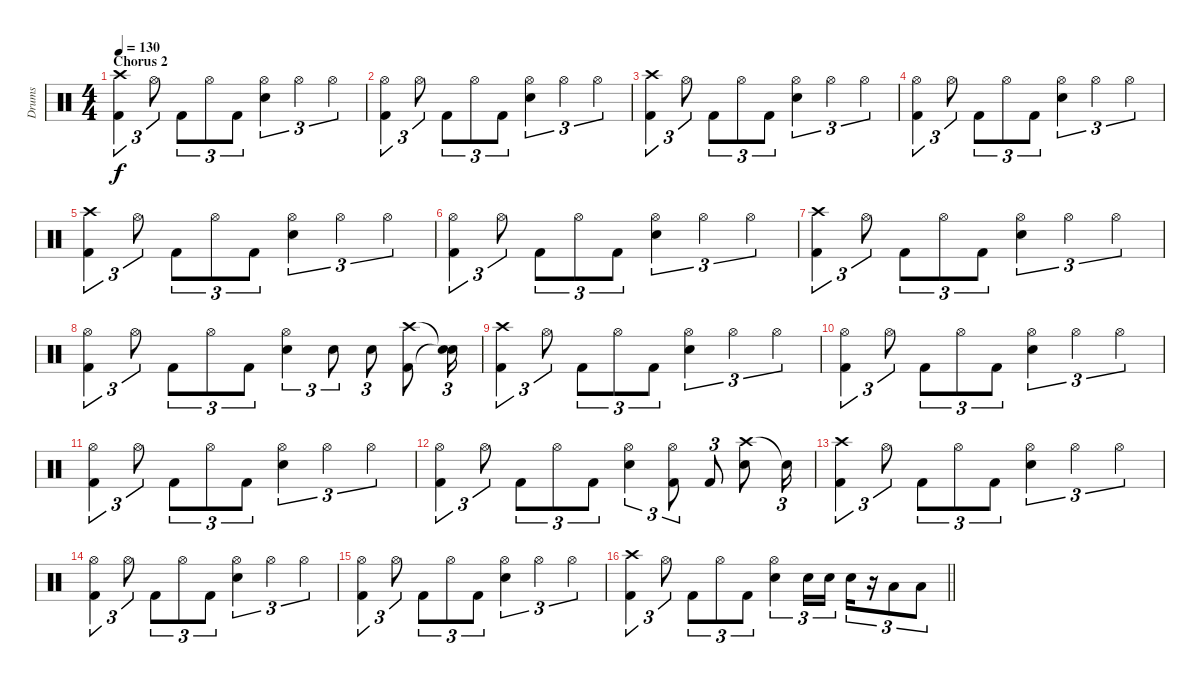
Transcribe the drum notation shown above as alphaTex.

\track ("Drums" "Drums") {instrument percussion}
\staff {score}
\articulation defaults
\ts (4 4)
\section ("" "Chorus 2")
\tempo 130
\clef neutral
\ks c
("Crash high (hit)" "Kick (hit) 2").4{tu (3 2) dy f} "Hi-Hat (open)".8{tu (3 2)} "Kick (hit) 2".8{tu (3 2)} "Hi-Hat (open)".8{tu (3 2)} "Kick (hit) 2".8{tu (3 2)} ("Hi-Hat (open)" "Electric Snare (hit)").4{tu (3 2)} "Hi-Hat (open)".4{tu (3 2)} "Hi-Hat (open)".4{tu (3 2)} |
("Hi-Hat (open)" "Kick (hit) 2").4{tu (3 2)} "Hi-Hat (open)".8{tu (3 2)} "Kick (hit) 2".8{tu (3 2)} "Hi-Hat (open)".8{tu (3 2)} "Kick (hit) 2".8{tu (3 2)} ("Hi-Hat (open)" "Electric Snare (hit)").4{tu (3 2)} "Hi-Hat (open)".4{tu (3 2)} "Hi-Hat (open)".4{tu (3 2)} |
("Crash high (hit)" "Kick (hit) 2").4{tu (3 2)} "Hi-Hat (open)".8{tu (3 2)} "Kick (hit) 2".8{tu (3 2)} "Hi-Hat (open)".8{tu (3 2)} "Kick (hit) 2".8{tu (3 2)} ("Hi-Hat (open)" "Electric Snare (hit)").4{tu (3 2)} "Hi-Hat (open)".4{tu (3 2)} "Hi-Hat (open)".4{tu (3 2)} |
("Hi-Hat (open)" "Kick (hit) 2").4{tu (3 2)} "Hi-Hat (open)".8{tu (3 2)} "Kick (hit) 2".8{tu (3 2)} "Hi-Hat (open)".8{tu (3 2)} "Kick (hit) 2".8{tu (3 2)} ("Hi-Hat (open)" "Electric Snare (hit)").4{tu (3 2)} "Hi-Hat (open)".4{tu (3 2)} "Hi-Hat (open)".4{tu (3 2)} |
("Crash high (hit)" "Kick (hit) 2").4{tu (3 2)} "Hi-Hat (open)".8{tu (3 2)} "Kick (hit) 2".8{tu (3 2)} "Hi-Hat (open)".8{tu (3 2)} "Kick (hit) 2".8{tu (3 2)} ("Hi-Hat (open)" "Electric Snare (hit)").4{tu (3 2)} "Hi-Hat (open)".4{tu (3 2)} "Hi-Hat (open)".4{tu (3 2)} |
("Hi-Hat (open)" "Kick (hit) 2").4{tu (3 2)} "Hi-Hat (open)".8{tu (3 2)} "Kick (hit) 2".8{tu (3 2)} "Hi-Hat (open)".8{tu (3 2)} "Kick (hit) 2".8{tu (3 2)} ("Hi-Hat (open)" "Electric Snare (hit)").4{tu (3 2)} "Hi-Hat (open)".4{tu (3 2)} "Hi-Hat (open)".4{tu (3 2)} |
("Crash high (hit)" "Kick (hit) 2").4{tu (3 2)} "Hi-Hat (open)".8{tu (3 2)} "Kick (hit) 2".8{tu (3 2)} "Hi-Hat (open)".8{tu (3 2)} "Kick (hit) 2".8{tu (3 2)} ("Hi-Hat (open)" "Electric Snare (hit)").4{tu (3 2)} "Hi-Hat (open)".4{tu (3 2)} "Hi-Hat (open)".4{tu (3 2)} |
("Hi-Hat (open)" "Kick (hit) 2").4{tu (3 2)} "Hi-Hat (open)".8{tu (3 2)} "Kick (hit) 2".8{tu (3 2)} "Hi-Hat (open)".8{tu (3 2)} "Kick (hit) 2".8{tu (3 2)} ("Hi-Hat (open)" "Electric Snare (hit)").4{tu (3 2)} "Electric Snare (hit)".8{tu (3 2)} "Electric Snare (hit)".8{tu (3 2)} ("Crash high (hit)" "Kick (hit) 2").8 ("Snare (hit)"{t} "Snare (hit)"{t}).16{tu (3 2)} |
("Crash high (hit)" "Kick (hit) 2").4{tu (3 2)} "Hi-Hat (open)".8{tu (3 2)} "Kick (hit) 2".8{tu (3 2)} "Hi-Hat (open)".8{tu (3 2)} "Kick (hit) 2".8{tu (3 2)} ("Hi-Hat (open)" "Electric Snare (hit)").4{tu (3 2)} "Hi-Hat (open)".4{tu (3 2)} "Hi-Hat (open)".4{tu (3 2)} |
("Hi-Hat (open)" "Kick (hit) 2").4{tu (3 2)} "Hi-Hat (open)".8{tu (3 2)} "Kick (hit) 2".8{tu (3 2)} "Hi-Hat (open)".8{tu (3 2)} "Kick (hit) 2".8{tu (3 2)} ("Hi-Hat (open)" "Electric Snare (hit)").4{tu (3 2)} "Hi-Hat (open)".4{tu (3 2)} "Hi-Hat (open)".4{tu (3 2)} |
("Hi-Hat (open)" "Kick (hit) 2").4{tu (3 2)} "Hi-Hat (open)".8{tu (3 2)} "Kick (hit) 2".8{tu (3 2)} "Hi-Hat (open)".8{tu (3 2)} "Kick (hit) 2".8{tu (3 2)} ("Hi-Hat (open)" "Electric Snare (hit)").4{tu (3 2)} "Hi-Hat (open)".4{tu (3 2)} "Hi-Hat (open)".4{tu (3 2)} |
("Hi-Hat (open)" "Kick (hit) 2").4{tu (3 2)} "Hi-Hat (open)".8{tu (3 2)} "Kick (hit) 2".8{tu (3 2)} "Hi-Hat (open)".8{tu (3 2)} "Kick (hit) 2".8{tu (3 2)} ("Hi-Hat (open)" "Electric Snare (hit)").4{tu (3 2)} ("Hi-Hat (open)" "Kick (hit) 2").8{tu (3 2)} "Kick (hit) 2".8{tu (3 2)} ("Crash high (hit)" "Electric Snare (hit)").8 "Snare (hit)"{t}.16{tu (3 2)} |
("Crash high (hit)" "Kick (hit) 2").4{tu (3 2)} "Hi-Hat (open)".8{tu (3 2)} "Kick (hit) 2".8{tu (3 2)} "Hi-Hat (open)".8{tu (3 2)} "Kick (hit) 2".8{tu (3 2)} ("Hi-Hat (open)" "Electric Snare (hit)").4{tu (3 2)} "Hi-Hat (open)".4{tu (3 2)} "Hi-Hat (open)".4{tu (3 2)} |
("Hi-Hat (open)" "Kick (hit) 2").4{tu (3 2)} "Hi-Hat (open)".8{tu (3 2)} "Kick (hit) 2".8{tu (3 2)} "Hi-Hat (open)".8{tu (3 2)} "Kick (hit) 2".8{tu (3 2)} ("Hi-Hat (open)" "Electric Snare (hit)").4{tu (3 2)} "Hi-Hat (open)".4{tu (3 2)} "Hi-Hat (open)".4{tu (3 2)} |
("Hi-Hat (open)" "Kick (hit) 2").4{tu (3 2)} "Hi-Hat (open)".8{tu (3 2)} "Kick (hit) 2".8{tu (3 2)} "Hi-Hat (open)".8{tu (3 2)} "Kick (hit) 2".8{tu (3 2)} ("Hi-Hat (open)" "Electric Snare (hit)").4{tu (3 2)} "Hi-Hat (open)".4{tu (3 2)} "Hi-Hat (open)".4{tu (3 2)} |
\barLineRight lightlight
("Crash high (hit)" "Kick (hit) 2").4{tu (3 2)} "Hi-Hat (open)".8{tu (3 2)} "Kick (hit) 2".8{tu (3 2)} "Hi-Hat (open)".8{tu (3 2)} "Kick (hit) 2".8{tu (3 2)} ("Hi-Hat (open)" "Electric Snare (hit)").4{tu (3 2)} "Electric Snare (hit)".16{tu (3 2)} "Electric Snare (hit)".16{tu (3 2)} "Electric Snare (hit)".16{tu (3 2)} r.16{tu (3 2)} "Low Tom (hit)".8{tu (3 2)} "Low Tom (hit)".8{tu (3 2)}
